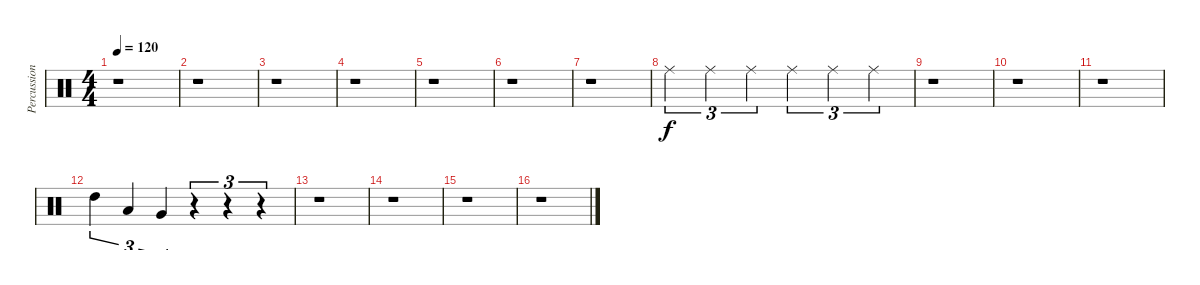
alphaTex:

\track ("Percussions" "Percussion") {instrument percussion}
\staff {score}
\articulation defaults
\ts (4 4)
\tempo 120
\clef neutral
\ks c
r.1{dy f} |
r.1 |
r.1 |
r.1 |
r.1 |
r.1 |
r.1 |
"Ride (middle)".4{tu (3 2)} "Ride (middle)".4{tu (3 2)} "Ride (middle)".4{tu (3 2)} "Ride (middle)".4{tu (3 2)} "Ride (middle)".4{tu (3 2)} "Ride (middle)".4{tu (3 2)} |
r.1 |
r.1 |
r.1 |
"High Tom (hit)".4{tu (3 2)} "Low Tom (hit)".4{tu (3 2)} "Very Low Tom (hit)".4{tu (3 2)} r.4{tu (3 2)} r.4{tu (3 2)} r.4{tu (3 2)} |
r.1 |
r.1 |
r.1 |
r.1
